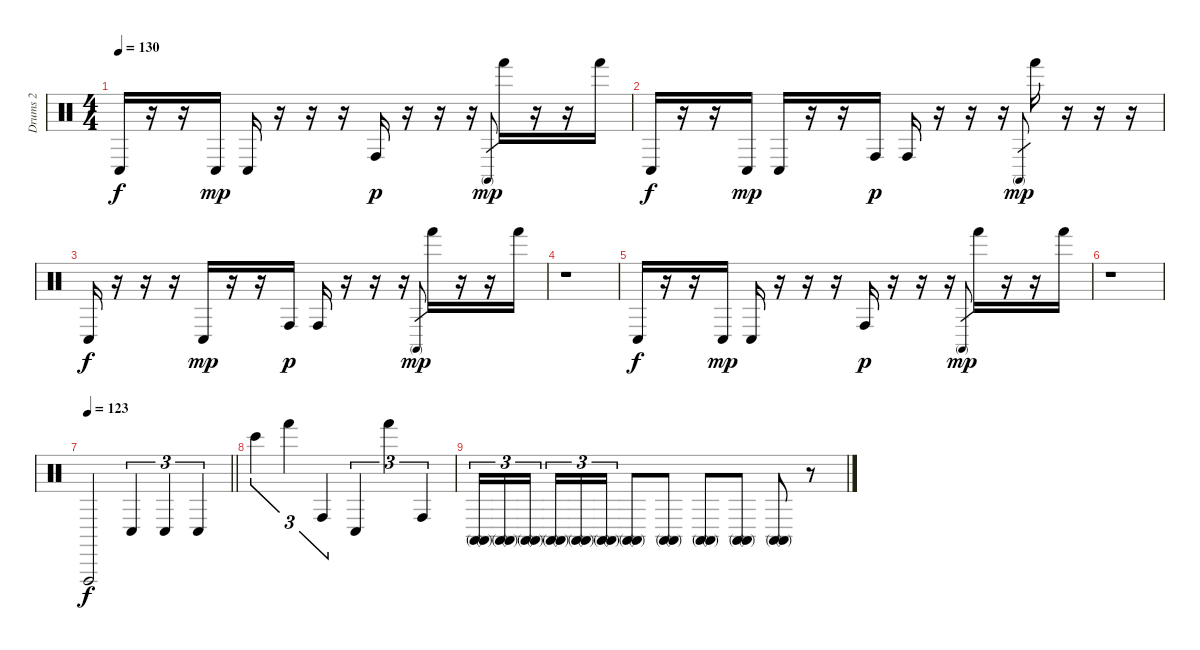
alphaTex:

\track ("Drums 2" "Drums 2") {instrument percussion}
\staff {score}
\articulation defaults
\ts (4 4)
\tempo 130
\clef neutral
\ks c "Conga low (hit)".16{dy f}
r.16 r.16 "Conga low (hit)".16{dy mp} "Conga low (hit)".16 r.16 r.16 r.16 "Conga high (hit)".16{dy p} r.16 r.16 r.16 "Conga high (mute)".8{gr dy mp} "Hand (hit)".16 r.16 r.16 "Hand (hit)".16 |
"Conga low (hit)".16{dy f} r.16 r.16 "Conga low (hit)".16{dy mp} "Conga low (hit)".16 r.16 r.16 "Conga high (hit)".16{dy p} "Conga high (hit)".16 r.16 r.16 r.16 "Conga high (mute)".8{gr dy mp} "Hand (hit)".16 r.16 r.16 r.16 |
"Conga low (hit)".16{dy f} r.16 r.16 r.16 "Conga low (hit)".16{dy mp} r.16 r.16 "Conga high (hit)".16{dy p} "Conga high (hit)".16 r.16 r.16 r.16 "Conga high (mute)".8{gr dy mp} "Hand (hit)".16 r.16 r.16 "Hand (hit)".16 |
r.1 |
"Conga low (hit)".16{dy f} r.16 r.16 "Conga low (hit)".16{dy mp} "Conga low (hit)".16 r.16 r.16 r.16 "Conga high (hit)".16{dy p} r.16 r.16 r.16 "Conga high (mute)".8{gr dy mp} "Hand (hit)".16 r.16 r.16 "Hand (hit)".16 |
r.1 |
\tempo 123
\barLineRight lightlight "Vibraslap (hit)".2{dy f} "Conga low (hit)".4{tu (3 2)} "Conga low (hit)".4{tu (3 2)} "Conga low (hit)".4{tu (3 2)}
|
"Bongo High (hit)".4{tu (3 2)} "Hand (hit)".4{tu (3 2)} "Conga high (hit)".4{tu (3 2)} "Conga low (hit)".4{tu (3 2)} "Hand (hit)".4{tu (3 2)} "Conga high (hit)".4{tu (3 2)} |
("Conga high (mute)" "Conga high (mute)").16{tu (3 2)} ("Conga high (mute)" "Conga high (mute)").16{tu (3 2)} ("Conga high (mute)" "Conga high (mute)").16{tu (3 2)} ("Conga high (mute)" "Conga high (mute)").16{tu (3 2)} ("Conga high (mute)" "Conga high (mute)").16{tu (3 2)} ("Conga high (mute)" "Conga high (mute)").16{tu (3 2)} ("Conga high (mute)" "Conga high (mute)").8 ("Conga high (mute)" "Conga high (mute)").8 ("Conga high (mute)" "Conga high (mute)").8 ("Conga high (mute)" "Conga high (mute)").8 ("Conga high (mute)" "Conga high (mute)").8 r.8
